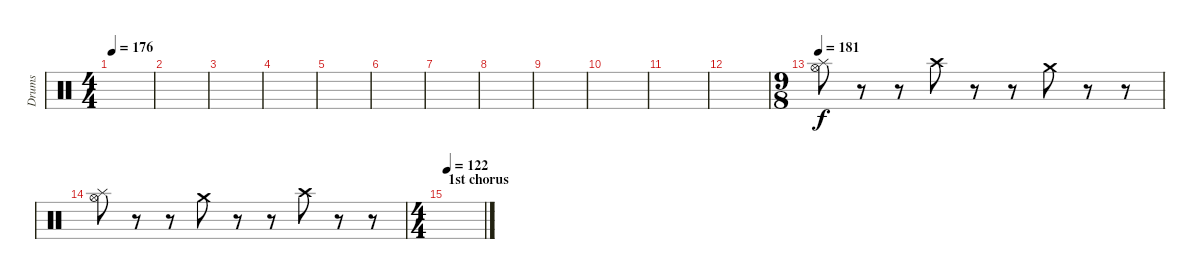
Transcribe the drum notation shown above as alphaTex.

\track ("Drums" "Drums") {instrument percussion}
\staff {score}
\articulation defaults
\ts (4 4)
\tempo 176
\clef neutral
\ks c
|
|
|
|
|
|
|
|
|
|
|
|
\ts (9 8)
\tempo 181
("Splash (hit)" "Hi-Hat (open)").8{balance 10} r.8 r.8 "Crash high (hit)".8{balance 2} r.8 r.8 "Crash medium (hit)".8{balance 5} r.8 r.8 |
("Splash (hit)" "Hi-Hat (open)").8{balance 0} r.8 r.8 "Crash medium (hit)".8{balance 3} r.8 r.8 "Crash high (hit)".8{balance 7} r.8 r.8 |
\ts (4 4)
\section ("" "1st chorus")
\tempo 122
